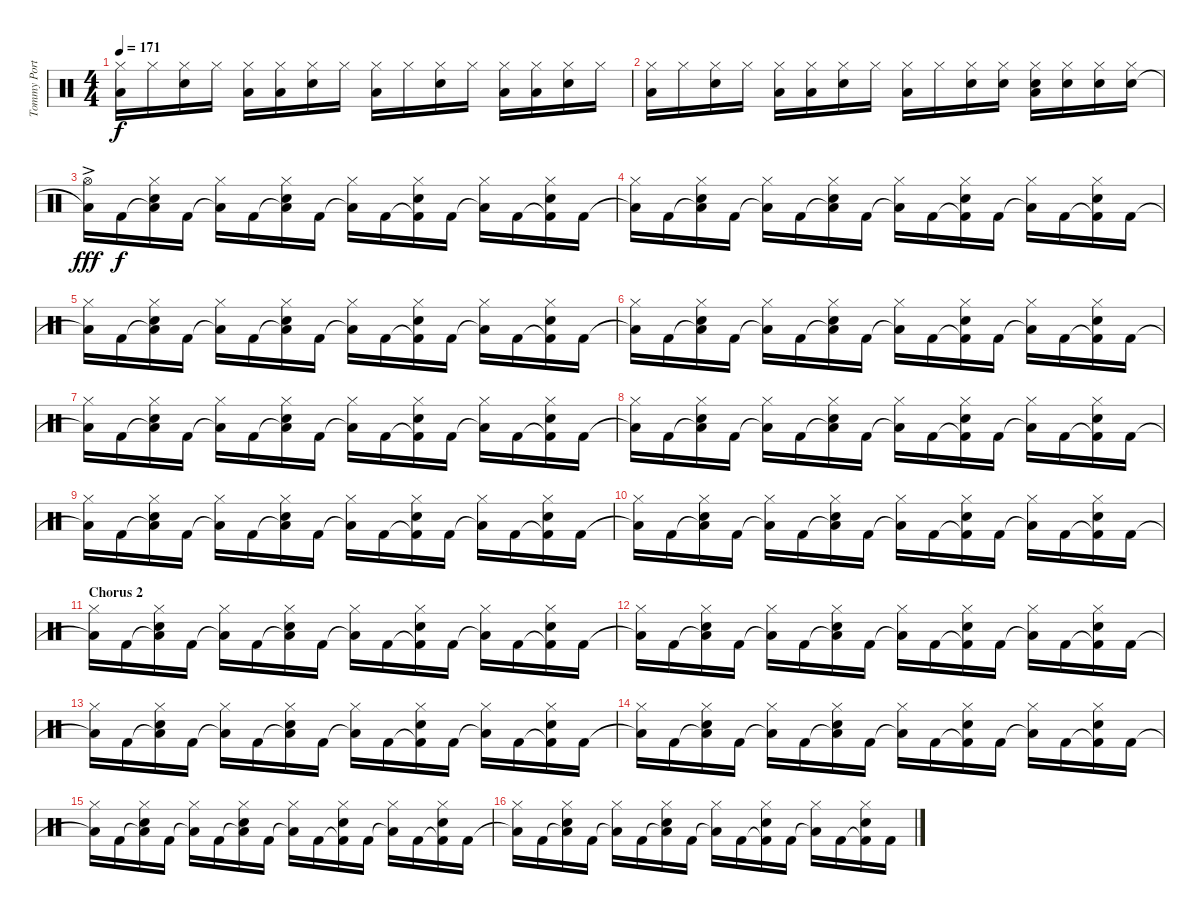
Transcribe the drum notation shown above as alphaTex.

\track ("Tommy Portino" "Tommy Port") {instrument percussion}
\staff {score}
\articulation defaults
\ts (4 4)
\tempo 171
\clef neutral
\ks aminor
("Low Floor Tom (hit)" "Hi-Hat (closed)").16{dy f} "Hi-Hat (closed)".16 ("Electric Snare (hit)" "Hi-Hat (closed)").16 "Hi-Hat (closed)".16 ("Low Floor Tom (hit)" "Hi-Hat (closed)").16 ("Low Floor Tom (hit)" "Hi-Hat (closed)").16 ("Electric Snare (hit)" "Hi-Hat (closed)").16 "Hi-Hat (closed)".16 ("Low Floor Tom (hit)" "Hi-Hat (closed)").16 "Hi-Hat (closed)".16 ("Electric Snare (hit)" "Hi-Hat (closed)").16 "Hi-Hat (closed)".16 ("Low Floor Tom (hit)" "Hi-Hat (closed)").16 ("Low Floor Tom (hit)" "Hi-Hat (closed)").16 ("Electric Snare (hit)" "Hi-Hat (closed)").16 "Hi-Hat (closed)".16 |
("Low Floor Tom (hit)" "Hi-Hat (closed)").16 "Hi-Hat (closed)".16 ("Electric Snare (hit)" "Hi-Hat (closed)").16 "Hi-Hat (closed)".16 ("Low Floor Tom (hit)" "Hi-Hat (closed)").16 ("Low Floor Tom (hit)" "Hi-Hat (closed)").16 ("Electric Snare (hit)" "Hi-Hat (closed)").16 "Hi-Hat (closed)".16 ("Low Floor Tom (hit)" "Hi-Hat (closed)").16 "Hi-Hat (closed)".16 ("Electric Snare (hit)" "Hi-Hat (closed)").16 ("Electric Snare (hit)" "Hi-Hat (closed)").16 ("Low Floor Tom (hit)" "Electric Snare (hit)" "Hi-Hat (closed)").16 ("Electric Snare (hit)" "Hi-Hat (closed)").16 ("Electric Snare (hit)" "Hi-Hat (closed)").16 ("Electric Snare (hit)" "Hi-Hat (closed)").16 |
("Low Floor Tom (hit)"{t} "Hi-Hat (open)"{ac}).16{dy fff} "Kick (hit) 2".16{dy f} ("Low Floor Tom (hit)"{t} "Electric Snare (hit)" "Hi-Hat (closed)").16 "Kick (hit) 2".16 ("Low Floor Tom (hit)"{t} "Hi-Hat (closed)").16 "Kick (hit) 2".16 ("Low Floor Tom (hit)"{t} "Electric Snare (hit)" "Hi-Hat (closed)").16 "Kick (hit) 2".16 ("Low Floor Tom (hit)"{t} "Hi-Hat (closed)").16 "Kick (hit) 2".16 ("Kick (hit) 2"{t} "Electric Snare (hit)" "Hi-Hat (closed)").16 "Kick (hit) 2".16 ("Low Floor Tom (hit)"{t} "Hi-Hat (closed)").16 "Kick (hit) 2".16 ("Kick (hit) 2"{t} "Electric Snare (hit)" "Hi-Hat (closed)").16 "Kick (hit) 2".16 |
("Low Floor Tom (hit)"{t} "Hi-Hat (closed)").16 "Kick (hit) 2".16 ("Low Floor Tom (hit)"{t} "Electric Snare (hit)" "Hi-Hat (closed)").16 "Kick (hit) 2".16 ("Low Floor Tom (hit)"{t} "Hi-Hat (closed)").16 "Kick (hit) 2".16 ("Low Floor Tom (hit)"{t} "Electric Snare (hit)" "Hi-Hat (closed)").16 "Kick (hit) 2".16 ("Low Floor Tom (hit)"{t} "Hi-Hat (closed)").16 "Kick (hit) 2".16 ("Kick (hit) 2"{t} "Electric Snare (hit)" "Hi-Hat (closed)").16 "Kick (hit) 2".16 ("Low Floor Tom (hit)"{t} "Hi-Hat (closed)").16 "Kick (hit) 2".16 ("Kick (hit) 2"{t} "Electric Snare (hit)" "Hi-Hat (closed)").16 "Kick (hit) 2".16 |
("Low Floor Tom (hit)"{t} "Hi-Hat (closed)").16 "Kick (hit) 2".16 ("Low Floor Tom (hit)"{t} "Electric Snare (hit)" "Hi-Hat (closed)").16 "Kick (hit) 2".16 ("Low Floor Tom (hit)"{t} "Hi-Hat (closed)").16 "Kick (hit) 2".16 ("Low Floor Tom (hit)"{t} "Electric Snare (hit)" "Hi-Hat (closed)").16 "Kick (hit) 2".16 ("Low Floor Tom (hit)"{t} "Hi-Hat (closed)").16 "Kick (hit) 2".16 ("Kick (hit) 2"{t} "Electric Snare (hit)" "Hi-Hat (closed)").16 "Kick (hit) 2".16 ("Low Floor Tom (hit)"{t} "Hi-Hat (closed)").16 "Kick (hit) 2".16 ("Kick (hit) 2"{t} "Electric Snare (hit)" "Hi-Hat (closed)").16 "Kick (hit) 2".16 |
("Low Floor Tom (hit)"{t} "Hi-Hat (closed)").16 "Kick (hit) 2".16 ("Low Floor Tom (hit)"{t} "Electric Snare (hit)" "Hi-Hat (closed)").16 "Kick (hit) 2".16 ("Low Floor Tom (hit)"{t} "Hi-Hat (closed)").16 "Kick (hit) 2".16 ("Low Floor Tom (hit)"{t} "Electric Snare (hit)" "Hi-Hat (closed)").16 "Kick (hit) 2".16 ("Low Floor Tom (hit)"{t} "Hi-Hat (closed)").16 "Kick (hit) 2".16 ("Kick (hit) 2"{t} "Electric Snare (hit)" "Hi-Hat (closed)").16 "Kick (hit) 2".16 ("Low Floor Tom (hit)"{t} "Hi-Hat (closed)").16 "Kick (hit) 2".16 ("Kick (hit) 2"{t} "Electric Snare (hit)" "Hi-Hat (closed)").16 "Kick (hit) 2".16 |
("Low Floor Tom (hit)"{t} "Hi-Hat (closed)").16 "Kick (hit) 2".16 ("Low Floor Tom (hit)"{t} "Electric Snare (hit)" "Hi-Hat (closed)").16 "Kick (hit) 2".16 ("Low Floor Tom (hit)"{t} "Hi-Hat (closed)").16 "Kick (hit) 2".16 ("Low Floor Tom (hit)"{t} "Electric Snare (hit)" "Hi-Hat (closed)").16 "Kick (hit) 2".16 ("Low Floor Tom (hit)"{t} "Hi-Hat (closed)").16 "Kick (hit) 2".16 ("Kick (hit) 2"{t} "Electric Snare (hit)" "Hi-Hat (closed)").16 "Kick (hit) 2".16 ("Low Floor Tom (hit)"{t} "Hi-Hat (closed)").16 "Kick (hit) 2".16 ("Kick (hit) 2"{t} "Electric Snare (hit)" "Hi-Hat (closed)").16 "Kick (hit) 2".16 |
("Low Floor Tom (hit)"{t} "Hi-Hat (closed)").16 "Kick (hit) 2".16 ("Low Floor Tom (hit)"{t} "Electric Snare (hit)" "Hi-Hat (closed)").16 "Kick (hit) 2".16 ("Low Floor Tom (hit)"{t} "Hi-Hat (closed)").16 "Kick (hit) 2".16 ("Low Floor Tom (hit)"{t} "Electric Snare (hit)" "Hi-Hat (closed)").16 "Kick (hit) 2".16 ("Low Floor Tom (hit)"{t} "Hi-Hat (closed)").16 "Kick (hit) 2".16 ("Kick (hit) 2"{t} "Electric Snare (hit)" "Hi-Hat (closed)").16 "Kick (hit) 2".16 ("Low Floor Tom (hit)"{t} "Hi-Hat (closed)").16 "Kick (hit) 2".16 ("Kick (hit) 2"{t} "Electric Snare (hit)" "Hi-Hat (closed)").16 "Kick (hit) 2".16 |
("Low Floor Tom (hit)"{t} "Hi-Hat (closed)").16 "Kick (hit) 2".16 ("Low Floor Tom (hit)"{t} "Electric Snare (hit)" "Hi-Hat (closed)").16 "Kick (hit) 2".16 ("Low Floor Tom (hit)"{t} "Hi-Hat (closed)").16 "Kick (hit) 2".16 ("Low Floor Tom (hit)"{t} "Electric Snare (hit)" "Hi-Hat (closed)").16 "Kick (hit) 2".16 ("Low Floor Tom (hit)"{t} "Hi-Hat (closed)").16 "Kick (hit) 2".16 ("Kick (hit) 2"{t} "Electric Snare (hit)" "Hi-Hat (closed)").16 "Kick (hit) 2".16 ("Low Floor Tom (hit)"{t} "Hi-Hat (closed)").16 "Kick (hit) 2".16 ("Kick (hit) 2"{t} "Electric Snare (hit)" "Hi-Hat (closed)").16 "Kick (hit) 2".16 |
("Low Floor Tom (hit)"{t} "Hi-Hat (closed)").16 "Kick (hit) 2".16 ("Low Floor Tom (hit)"{t} "Electric Snare (hit)" "Hi-Hat (closed)").16 "Kick (hit) 2".16 ("Low Floor Tom (hit)"{t} "Hi-Hat (closed)").16 "Kick (hit) 2".16 ("Low Floor Tom (hit)"{t} "Electric Snare (hit)" "Hi-Hat (closed)").16 "Kick (hit) 2".16 ("Low Floor Tom (hit)"{t} "Hi-Hat (closed)").16 "Kick (hit) 2".16 ("Kick (hit) 2"{t} "Electric Snare (hit)" "Hi-Hat (closed)").16 "Kick (hit) 2".16 ("Low Floor Tom (hit)"{t} "Hi-Hat (closed)").16 "Kick (hit) 2".16 ("Kick (hit) 2"{t} "Electric Snare (hit)" "Hi-Hat (closed)").16 "Kick (hit) 2".16 |
\section ("" "Chorus 2")
("Low Floor Tom (hit)"{t} "Hi-Hat (closed)").16 "Kick (hit) 2".16 ("Low Floor Tom (hit)"{t} "Electric Snare (hit)" "Hi-Hat (closed)").16 "Kick (hit) 2".16 ("Low Floor Tom (hit)"{t} "Hi-Hat (closed)").16 "Kick (hit) 2".16 ("Low Floor Tom (hit)"{t} "Electric Snare (hit)" "Hi-Hat (closed)").16 "Kick (hit) 2".16 ("Low Floor Tom (hit)"{t} "Hi-Hat (closed)").16 "Kick (hit) 2".16 ("Kick (hit) 2"{t} "Electric Snare (hit)" "Hi-Hat (closed)").16 "Kick (hit) 2".16 ("Low Floor Tom (hit)"{t} "Hi-Hat (closed)").16 "Kick (hit) 2".16 ("Kick (hit) 2"{t} "Electric Snare (hit)" "Hi-Hat (closed)").16 "Kick (hit) 2".16 |
("Low Floor Tom (hit)"{t} "Hi-Hat (closed)").16 "Kick (hit) 2".16 ("Low Floor Tom (hit)"{t} "Electric Snare (hit)" "Hi-Hat (closed)").16 "Kick (hit) 2".16 ("Low Floor Tom (hit)"{t} "Hi-Hat (closed)").16 "Kick (hit) 2".16 ("Low Floor Tom (hit)"{t} "Electric Snare (hit)" "Hi-Hat (closed)").16 "Kick (hit) 2".16 ("Low Floor Tom (hit)"{t} "Hi-Hat (closed)").16 "Kick (hit) 2".16 ("Kick (hit) 2"{t} "Electric Snare (hit)" "Hi-Hat (closed)").16 "Kick (hit) 2".16 ("Low Floor Tom (hit)"{t} "Hi-Hat (closed)").16 "Kick (hit) 2".16 ("Kick (hit) 2"{t} "Electric Snare (hit)" "Hi-Hat (closed)").16 "Kick (hit) 2".16 |
("Low Floor Tom (hit)"{t} "Hi-Hat (closed)").16 "Kick (hit) 2".16 ("Low Floor Tom (hit)"{t} "Electric Snare (hit)" "Hi-Hat (closed)").16 "Kick (hit) 2".16 ("Low Floor Tom (hit)"{t} "Hi-Hat (closed)").16 "Kick (hit) 2".16 ("Low Floor Tom (hit)"{t} "Electric Snare (hit)" "Hi-Hat (closed)").16 "Kick (hit) 2".16 ("Low Floor Tom (hit)"{t} "Hi-Hat (closed)").16 "Kick (hit) 2".16 ("Kick (hit) 2"{t} "Electric Snare (hit)" "Hi-Hat (closed)").16 "Kick (hit) 2".16 ("Low Floor Tom (hit)"{t} "Hi-Hat (closed)").16 "Kick (hit) 2".16 ("Kick (hit) 2"{t} "Electric Snare (hit)" "Hi-Hat (closed)").16 "Kick (hit) 2".16 |
("Low Floor Tom (hit)"{t} "Hi-Hat (closed)").16 "Kick (hit) 2".16 ("Low Floor Tom (hit)"{t} "Electric Snare (hit)" "Hi-Hat (closed)").16 "Kick (hit) 2".16 ("Low Floor Tom (hit)"{t} "Hi-Hat (closed)").16 "Kick (hit) 2".16 ("Low Floor Tom (hit)"{t} "Electric Snare (hit)" "Hi-Hat (closed)").16 "Kick (hit) 2".16 ("Low Floor Tom (hit)"{t} "Hi-Hat (closed)").16 "Kick (hit) 2".16 ("Kick (hit) 2"{t} "Electric Snare (hit)" "Hi-Hat (closed)").16 "Kick (hit) 2".16 ("Low Floor Tom (hit)"{t} "Hi-Hat (closed)").16 "Kick (hit) 2".16 ("Kick (hit) 2"{t} "Electric Snare (hit)" "Hi-Hat (closed)").16 "Kick (hit) 2".16 |
("Low Floor Tom (hit)"{t} "Hi-Hat (closed)").16 "Kick (hit) 2".16 ("Low Floor Tom (hit)"{t} "Electric Snare (hit)" "Hi-Hat (closed)").16 "Kick (hit) 2".16 ("Low Floor Tom (hit)"{t} "Hi-Hat (closed)").16 "Kick (hit) 2".16 ("Low Floor Tom (hit)"{t} "Electric Snare (hit)" "Hi-Hat (closed)").16 "Kick (hit) 2".16 ("Low Floor Tom (hit)"{t} "Hi-Hat (closed)").16 "Kick (hit) 2".16 ("Kick (hit) 2"{t} "Electric Snare (hit)" "Hi-Hat (closed)").16 "Kick (hit) 2".16 ("Low Floor Tom (hit)"{t} "Hi-Hat (closed)").16 "Kick (hit) 2".16 ("Kick (hit) 2"{t} "Electric Snare (hit)" "Hi-Hat (closed)").16 "Kick (hit) 2".16 |
("Low Floor Tom (hit)"{t} "Hi-Hat (closed)").16 "Kick (hit) 2".16 ("Low Floor Tom (hit)"{t} "Electric Snare (hit)" "Hi-Hat (closed)").16 "Kick (hit) 2".16 ("Low Floor Tom (hit)"{t} "Hi-Hat (closed)").16 "Kick (hit) 2".16 ("Low Floor Tom (hit)"{t} "Electric Snare (hit)" "Hi-Hat (closed)").16 "Kick (hit) 2".16 ("Low Floor Tom (hit)"{t} "Hi-Hat (closed)").16 "Kick (hit) 2".16 ("Kick (hit) 2"{t} "Electric Snare (hit)" "Hi-Hat (closed)").16 "Kick (hit) 2".16 ("Low Floor Tom (hit)"{t} "Hi-Hat (closed)").16 "Kick (hit) 2".16 ("Kick (hit) 2"{t} "Electric Snare (hit)" "Hi-Hat (closed)").16 "Kick (hit) 2".16
